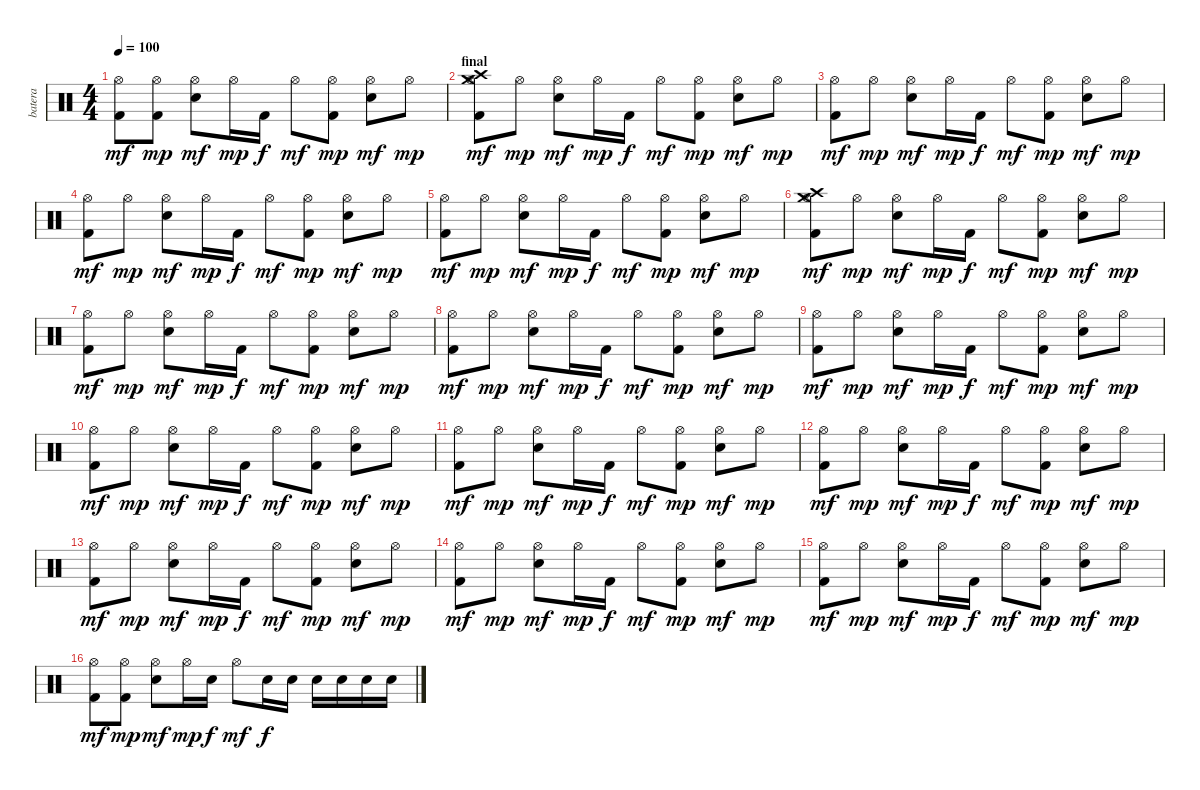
\track ("batera" "batera") {instrument percussion}
\staff {score}
\articulation defaults
\ts (4 4)
\tempo 100
\clef neutral
\ks c
("Kick (hit) 2" "Hi-Hat (open)").8{dy mf} ("Kick (hit) 2" "Hi-Hat (open)").8{dy mp} ("Snare (hit) 2" "Hi-Hat (open)").8{dy mf} "Hi-Hat (open)".16{dy mp} "Kick (hit) 2".16{dy f} "Hi-Hat (open)".8{dy mf} ("Kick (hit) 2" "Hi-Hat (open)").8{dy mp} ("Snare (hit) 2" "Hi-Hat (open)").8{dy mf} "Hi-Hat (open)".8{dy mp} |
\section ("" "final")
("Crash high (hit)" "Crash medium (hit)" "Kick (hit) 2" "Hi-Hat (open)").8{dy mf} "Hi-Hat (open)".8{dy mp} ("Snare (hit) 2" "Hi-Hat (open)").8{dy mf} "Hi-Hat (open)".16{dy mp} "Kick (hit) 2".16{dy f} "Hi-Hat (open)".8{dy mf} ("Kick (hit) 2" "Hi-Hat (open)").8{dy mp} ("Snare (hit) 2" "Hi-Hat (open)").8{dy mf} "Hi-Hat (open)".8{dy mp} |
("Kick (hit) 2" "Hi-Hat (open)").8{dy mf} "Hi-Hat (open)".8{dy mp} ("Snare (hit) 2" "Hi-Hat (open)").8{dy mf} "Hi-Hat (open)".16{dy mp} "Kick (hit) 2".16{dy f} "Hi-Hat (open)".8{dy mf} ("Kick (hit) 2" "Hi-Hat (open)").8{dy mp} ("Snare (hit) 2" "Hi-Hat (open)").8{dy mf} "Hi-Hat (open)".8{dy mp} |
("Kick (hit) 2" "Hi-Hat (open)").8{dy mf} "Hi-Hat (open)".8{dy mp} ("Snare (hit) 2" "Hi-Hat (open)").8{dy mf} "Hi-Hat (open)".16{dy mp} "Kick (hit) 2".16{dy f} "Hi-Hat (open)".8{dy mf} ("Kick (hit) 2" "Hi-Hat (open)").8{dy mp} ("Snare (hit) 2" "Hi-Hat (open)").8{dy mf} "Hi-Hat (open)".8{dy mp} |
("Kick (hit) 2" "Hi-Hat (open)").8{dy mf} "Hi-Hat (open)".8{dy mp} ("Snare (hit) 2" "Hi-Hat (open)").8{dy mf} "Hi-Hat (open)".16{dy mp} "Kick (hit) 2".16{dy f} "Hi-Hat (open)".8{dy mf} ("Kick (hit) 2" "Hi-Hat (open)").8{dy mp} ("Snare (hit) 2" "Hi-Hat (open)").8{dy mf} "Hi-Hat (open)".8{dy mp} |
("Crash high (hit)" "Crash medium (hit)" "Kick (hit) 2" "Hi-Hat (open)").8{dy mf} "Hi-Hat (open)".8{dy mp} ("Snare (hit) 2" "Hi-Hat (open)").8{dy mf} "Hi-Hat (open)".16{dy mp} "Kick (hit) 2".16{dy f} "Hi-Hat (open)".8{dy mf} ("Kick (hit) 2" "Hi-Hat (open)").8{dy mp} ("Snare (hit) 2" "Hi-Hat (open)").8{dy mf} "Hi-Hat (open)".8{dy mp} |
("Kick (hit) 2" "Hi-Hat (open)").8{dy mf} "Hi-Hat (open)".8{dy mp} ("Snare (hit) 2" "Hi-Hat (open)").8{dy mf} "Hi-Hat (open)".16{dy mp} "Kick (hit) 2".16{dy f} "Hi-Hat (open)".8{dy mf} ("Kick (hit) 2" "Hi-Hat (open)").8{dy mp} ("Snare (hit) 2" "Hi-Hat (open)").8{dy mf} "Hi-Hat (open)".8{dy mp} |
("Kick (hit) 2" "Hi-Hat (open)").8{dy mf} "Hi-Hat (open)".8{dy mp} ("Snare (hit) 2" "Hi-Hat (open)").8{dy mf} "Hi-Hat (open)".16{dy mp} "Kick (hit) 2".16{dy f} "Hi-Hat (open)".8{dy mf} ("Kick (hit) 2" "Hi-Hat (open)").8{dy mp} ("Snare (hit) 2" "Hi-Hat (open)").8{dy mf} "Hi-Hat (open)".8{dy mp} |
("Kick (hit) 2" "Hi-Hat (open)").8{dy mf} "Hi-Hat (open)".8{dy mp} ("Snare (hit) 2" "Hi-Hat (open)").8{dy mf} "Hi-Hat (open)".16{dy mp} "Kick (hit) 2".16{dy f} "Hi-Hat (open)".8{dy mf} ("Kick (hit) 2" "Hi-Hat (open)").8{dy mp} ("Snare (hit) 2" "Hi-Hat (open)").8{dy mf} "Hi-Hat (open)".8{dy mp} |
("Kick (hit) 2" "Hi-Hat (open)").8{dy mf} "Hi-Hat (open)".8{dy mp} ("Snare (hit) 2" "Hi-Hat (open)").8{dy mf} "Hi-Hat (open)".16{dy mp} "Kick (hit) 2".16{dy f} "Hi-Hat (open)".8{dy mf} ("Kick (hit) 2" "Hi-Hat (open)").8{dy mp} ("Snare (hit) 2" "Hi-Hat (open)").8{dy mf} "Hi-Hat (open)".8{dy mp} |
("Kick (hit) 2" "Hi-Hat (open)").8{dy mf} "Hi-Hat (open)".8{dy mp} ("Snare (hit) 2" "Hi-Hat (open)").8{dy mf} "Hi-Hat (open)".16{dy mp} "Kick (hit) 2".16{dy f} "Hi-Hat (open)".8{dy mf} ("Kick (hit) 2" "Hi-Hat (open)").8{dy mp} ("Snare (hit) 2" "Hi-Hat (open)").8{dy mf} "Hi-Hat (open)".8{dy mp} |
("Kick (hit) 2" "Hi-Hat (open)").8{dy mf} "Hi-Hat (open)".8{dy mp} ("Snare (hit) 2" "Hi-Hat (open)").8{dy mf} "Hi-Hat (open)".16{dy mp} "Kick (hit) 2".16{dy f} "Hi-Hat (open)".8{dy mf} ("Kick (hit) 2" "Hi-Hat (open)").8{dy mp} ("Snare (hit) 2" "Hi-Hat (open)").8{dy mf} "Hi-Hat (open)".8{dy mp} |
("Kick (hit) 2" "Hi-Hat (open)").8{dy mf} "Hi-Hat (open)".8{dy mp} ("Snare (hit) 2" "Hi-Hat (open)").8{dy mf} "Hi-Hat (open)".16{dy mp} "Kick (hit) 2".16{dy f} "Hi-Hat (open)".8{dy mf} ("Kick (hit) 2" "Hi-Hat (open)").8{dy mp} ("Snare (hit) 2" "Hi-Hat (open)").8{dy mf} "Hi-Hat (open)".8{dy mp} |
("Kick (hit) 2" "Hi-Hat (open)").8{dy mf} "Hi-Hat (open)".8{dy mp} ("Snare (hit) 2" "Hi-Hat (open)").8{dy mf} "Hi-Hat (open)".16{dy mp} "Kick (hit) 2".16{dy f} "Hi-Hat (open)".8{dy mf} ("Kick (hit) 2" "Hi-Hat (open)").8{dy mp} ("Snare (hit) 2" "Hi-Hat (open)").8{dy mf} "Hi-Hat (open)".8{dy mp} |
("Kick (hit) 2" "Hi-Hat (open)").8{dy mf} "Hi-Hat (open)".8{dy mp} ("Snare (hit) 2" "Hi-Hat (open)").8{dy mf} "Hi-Hat (open)".16{dy mp} "Kick (hit) 2".16{dy f} "Hi-Hat (open)".8{dy mf} ("Kick (hit) 2" "Hi-Hat (open)").8{dy mp} ("Snare (hit) 2" "Hi-Hat (open)").8{dy mf} "Hi-Hat (open)".8{dy mp} |
("Kick (hit) 2" "Hi-Hat (open)").8{dy mf} ("Kick (hit) 2" "Hi-Hat (open)").8{dy mp} ("Snare (hit) 2" "Hi-Hat (open)").8{dy mf} "Hi-Hat (open)".16{dy mp} "Snare (hit) 2".16{dy f} "Hi-Hat (open)".8{dy mf} "Snare (hit) 2".16{dy f} "Snare (hit) 2".16 "Snare (hit) 2".16 "Snare (hit) 2".16 "Snare (hit) 2".16 "Snare (hit) 2".16
